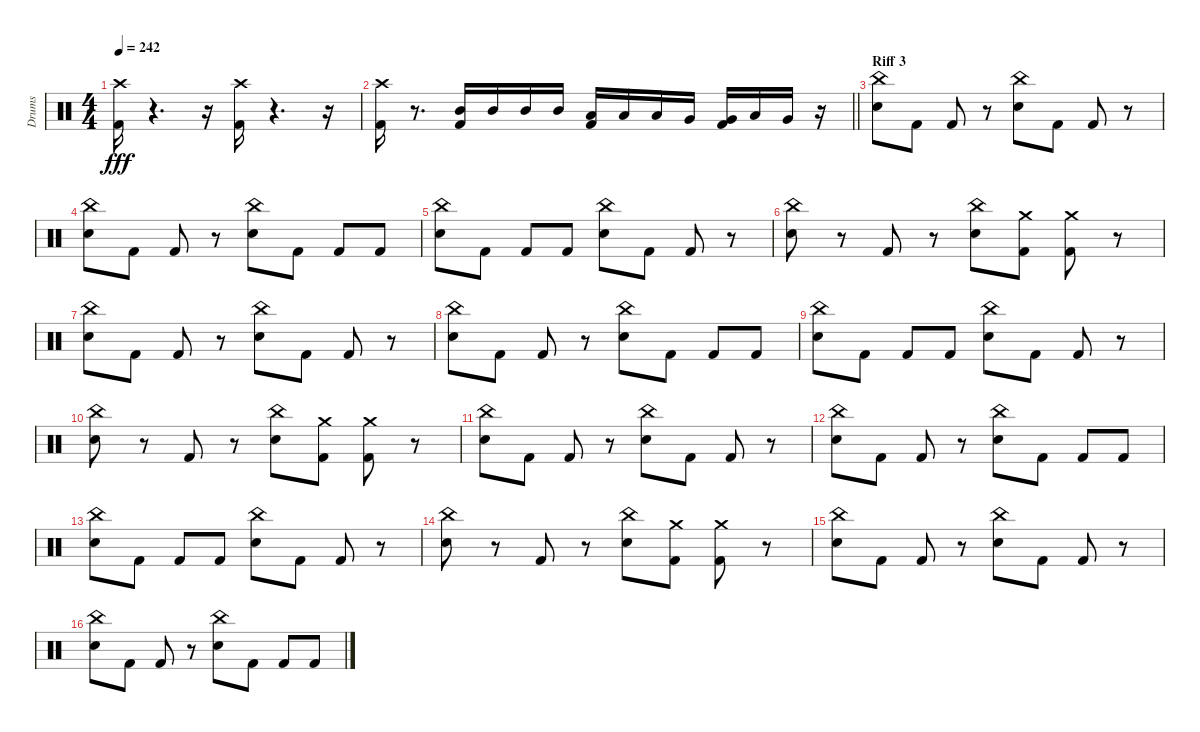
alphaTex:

\track ("Drums" "Drums") {instrument percussion}
\staff {score}
\articulation defaults
\ts (4 4)
\tempo 242
\clef neutral
\ks c
("Kick (hit) 2" "Crash high (hit)").16{dy fff} r.4{d} r.16 ("Kick (hit) 2" "Crash high (hit)").16 r.4{d} r.16 |
\barLineRight lightlight
("Kick (hit) 2" "Crash high (hit)").16 r.8{d} ("Kick (hit) 2" "Mid Tom (hit)").16 "Mid Tom (hit)".16 "Mid Tom (hit)".16 "Mid Tom (hit)".16 ("Kick (hit) 2" "Low Tom (hit)").16 "Low Tom (hit)".16 "Low Tom (hit)".16 "Very Low Tom (hit)".16 ("Kick (hit) 2" "Very Low Tom (hit)").16 "Low Floor Tom (hit)".16 "Very Low Tom (hit)".16 r.16 |
\section ("" "Riff 3")
("Snare (hit) 2" "China (hit)").8 "Kick (hit) 2".8 "Kick (hit) 2".8 r.8 ("Snare (hit) 2" "China (hit)").8 "Kick (hit) 2".8 "Kick (hit) 2".8 r.8 |
("Snare (hit) 2" "China (hit)").8 "Kick (hit) 2".8 "Kick (hit) 2".8 r.8 ("Snare (hit) 2" "China (hit)").8 "Kick (hit) 2".8 "Kick (hit) 2".8 "Kick (hit) 2".8 |
("Snare (hit) 2" "China (hit)").8 "Kick (hit) 2".8 "Kick (hit) 2".8 "Kick (hit) 2".8 ("Snare (hit) 2" "China (hit)").8 "Kick (hit) 2".8 "Kick (hit) 2".8 r.8 |
("Snare (hit) 2" "China (hit)").8 r.8 "Kick (hit) 2".8 r.8 ("Snare (hit) 2" "China (hit)").8 ("Kick (hit) 2" "Crash medium (hit)").8 ("Kick (hit) 2" "Crash medium (hit)").8 r.8 |
("Snare (hit) 2" "China (hit)").8 "Kick (hit) 2".8 "Kick (hit) 2".8 r.8 ("Snare (hit) 2" "China (hit)").8 "Kick (hit) 2".8 "Kick (hit) 2".8 r.8 |
("Snare (hit) 2" "China (hit)").8 "Kick (hit) 2".8 "Kick (hit) 2".8 r.8 ("Snare (hit) 2" "China (hit)").8 "Kick (hit) 2".8 "Kick (hit) 2".8 "Kick (hit) 2".8 |
("Snare (hit) 2" "China (hit)").8 "Kick (hit) 2".8 "Kick (hit) 2".8 "Kick (hit) 2".8 ("Snare (hit) 2" "China (hit)").8 "Kick (hit) 2".8 "Kick (hit) 2".8 r.8 |
("Snare (hit) 2" "China (hit)").8 r.8 "Kick (hit) 2".8 r.8 ("Snare (hit) 2" "China (hit)").8 ("Kick (hit) 2" "Crash medium (hit)").8 ("Kick (hit) 2" "Crash medium (hit)").8 r.8 |
("Snare (hit) 2" "China (hit)").8 "Kick (hit) 2".8 "Kick (hit) 2".8 r.8 ("Snare (hit) 2" "China (hit)").8 "Kick (hit) 2".8 "Kick (hit) 2".8 r.8 |
("Snare (hit) 2" "China (hit)").8 "Kick (hit) 2".8 "Kick (hit) 2".8 r.8 ("Snare (hit) 2" "China (hit)").8 "Kick (hit) 2".8 "Kick (hit) 2".8 "Kick (hit) 2".8 |
("Snare (hit) 2" "China (hit)").8 "Kick (hit) 2".8 "Kick (hit) 2".8 "Kick (hit) 2".8 ("Snare (hit) 2" "China (hit)").8 "Kick (hit) 2".8 "Kick (hit) 2".8 r.8 |
("Snare (hit) 2" "China (hit)").8 r.8 "Kick (hit) 2".8 r.8 ("Snare (hit) 2" "China (hit)").8 ("Kick (hit) 2" "Crash medium (hit)").8 ("Kick (hit) 2" "Crash medium (hit)").8 r.8 |
("Snare (hit) 2" "China (hit)").8 "Kick (hit) 2".8 "Kick (hit) 2".8 r.8 ("Snare (hit) 2" "China (hit)").8 "Kick (hit) 2".8 "Kick (hit) 2".8 r.8 |
("Snare (hit) 2" "China (hit)").8 "Kick (hit) 2".8 "Kick (hit) 2".8 r.8 ("Snare (hit) 2" "China (hit)").8 "Kick (hit) 2".8 "Kick (hit) 2".8 "Kick (hit) 2".8
